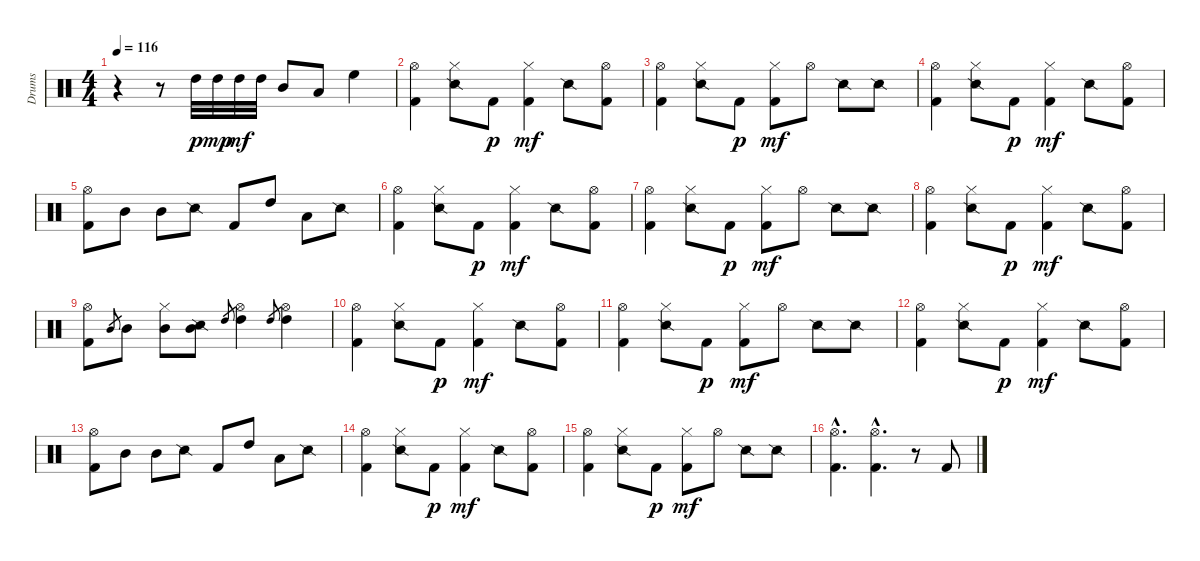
\track ("Drums" "Drums") {instrument percussion}
\staff {score}
\articulation defaults
\ts (4 4)
\tempo 116
\clef neutral
\ks c
r.4{dy p} r.8 "High Tom (hit)".32 "High Tom (hit)".32{dy mp} "High Tom (hit)".32{dy mf} "High Tom (hit)".32 "Mid Tom (hit)".8 "Low Tom (hit)".8 "High Floor Tom (hit)".4 |
("Kick (hit) 2" "Hi-Hat (open)").4 ("Snare (side stick) 2" "Hi-Hat (closed)").8 "Kick (hit) 2".8{dy p} ("Kick (hit) 2" "Hi-Hat (closed)").4{dy mf} "Snare (side stick) 2".8 ("Kick (hit) 2" "Hi-Hat (open)").8 |
("Kick (hit) 2" "Hi-Hat (open)").4 ("Snare (side stick) 2" "Hi-Hat (closed)").8 "Kick (hit) 2".8{dy p} ("Kick (hit) 2" "Hi-Hat (closed)").8{dy mf} "Hi-Hat (open)".8 "Snare (side stick) 2".8 "Snare (side stick) 2".8 |
("Kick (hit) 2" "Hi-Hat (open)").4 ("Snare (side stick) 2" "Hi-Hat (closed)").8 "Kick (hit) 2".8{dy p} ("Kick (hit) 2" "Hi-Hat (closed)").4{dy mf} "Snare (side stick) 2".8 ("Kick (hit) 2" "Hi-Hat (open)").8 |
("Kick (hit) 2" "Hi-Hat (open)").8 "Mid Tom (hit)".8 "Mid Tom (hit)".8 "Snare (side stick) 2".8 "Kick (hit) 2".8 "High Tom (hit)".8 "Low Tom (hit)".8 "Snare (side stick) 2".8 |
("Kick (hit) 2" "Hi-Hat (open)").4 ("Snare (side stick) 2" "Hi-Hat (closed)").8 "Kick (hit) 2".8{dy p} ("Kick (hit) 2" "Hi-Hat (closed)").4{dy mf} "Snare (side stick) 2".8 ("Kick (hit) 2" "Hi-Hat (open)").8 |
("Kick (hit) 2" "Hi-Hat (open)").4 ("Snare (side stick) 2" "Hi-Hat (closed)").8 "Kick (hit) 2".8{dy p} ("Kick (hit) 2" "Hi-Hat (closed)").8{dy mf} "Hi-Hat (open)".8 "Snare (side stick) 2".8 "Snare (side stick) 2".8 |
("Kick (hit) 2" "Hi-Hat (open)").4 ("Snare (side stick) 2" "Hi-Hat (closed)").8 "Kick (hit) 2".8{dy p} ("Kick (hit) 2" "Hi-Hat (closed)").4{dy mf} "Snare (side stick) 2".8 ("Kick (hit) 2" "Hi-Hat (open)").8 |
("Kick (hit) 2" "Hi-Hat (open)").8 "Mid Tom (hit)".8{gr} "Mid Tom (hit)".8 ("Hi-Hat (closed)" "Mid Tom (hit)").8 ("Snare (side stick) 2" "Mid Tom (hit)").8 "High Tom (hit)".8{gr} ("Hi-Hat (open)" "High Tom (hit)").4 "High Tom (hit)".8{gr} ("Hi-Hat (open)" "High Tom (hit)").4 |
("Kick (hit) 2" "Hi-Hat (open)").4 ("Snare (side stick) 2" "Hi-Hat (closed)").8 "Kick (hit) 2".8{dy p} ("Kick (hit) 2" "Hi-Hat (closed)").4{dy mf} "Snare (side stick) 2".8 ("Kick (hit) 2" "Hi-Hat (open)").8 |
("Kick (hit) 2" "Hi-Hat (open)").4 ("Snare (side stick) 2" "Hi-Hat (closed)").8 "Kick (hit) 2".8{dy p} ("Kick (hit) 2" "Hi-Hat (closed)").8{dy mf} "Hi-Hat (open)".8 "Snare (side stick) 2".8 "Snare (side stick) 2".8 |
("Kick (hit) 2" "Hi-Hat (open)").4 ("Snare (side stick) 2" "Hi-Hat (closed)").8 "Kick (hit) 2".8{dy p} ("Kick (hit) 2" "Hi-Hat (closed)").4{dy mf} "Snare (side stick) 2".8 ("Kick (hit) 2" "Hi-Hat (open)").8 |
("Kick (hit) 2" "Hi-Hat (open)").8 "Mid Tom (hit)".8 "Mid Tom (hit)".8 "Snare (side stick) 2".8 "Kick (hit) 2".8 "High Tom (hit)".8 "Low Tom (hit)".8 "Snare (side stick) 2".8 |
("Kick (hit) 2" "Hi-Hat (open)").4 ("Snare (side stick) 2" "Hi-Hat (closed)").8 "Kick (hit) 2".8{dy p} ("Kick (hit) 2" "Hi-Hat (closed)").4{dy mf} "Snare (side stick) 2".8 ("Kick (hit) 2" "Hi-Hat (open)").8 |
("Kick (hit) 2" "Hi-Hat (open)").4 ("Snare (side stick) 2" "Hi-Hat (closed)").8 "Kick (hit) 2".8{dy p} ("Kick (hit) 2" "Hi-Hat (closed)").8{dy mf} "Hi-Hat (open)".8 "Snare (side stick) 2".8 "Snare (side stick) 2".8 |
("Kick (hit) 2"{hac} "Hi-Hat (open)"{hac}).4{d} ("Kick (hit) 2"{hac} "Hi-Hat (open)"{hac}).4{d} r.8 "Kick (hit) 2".8
